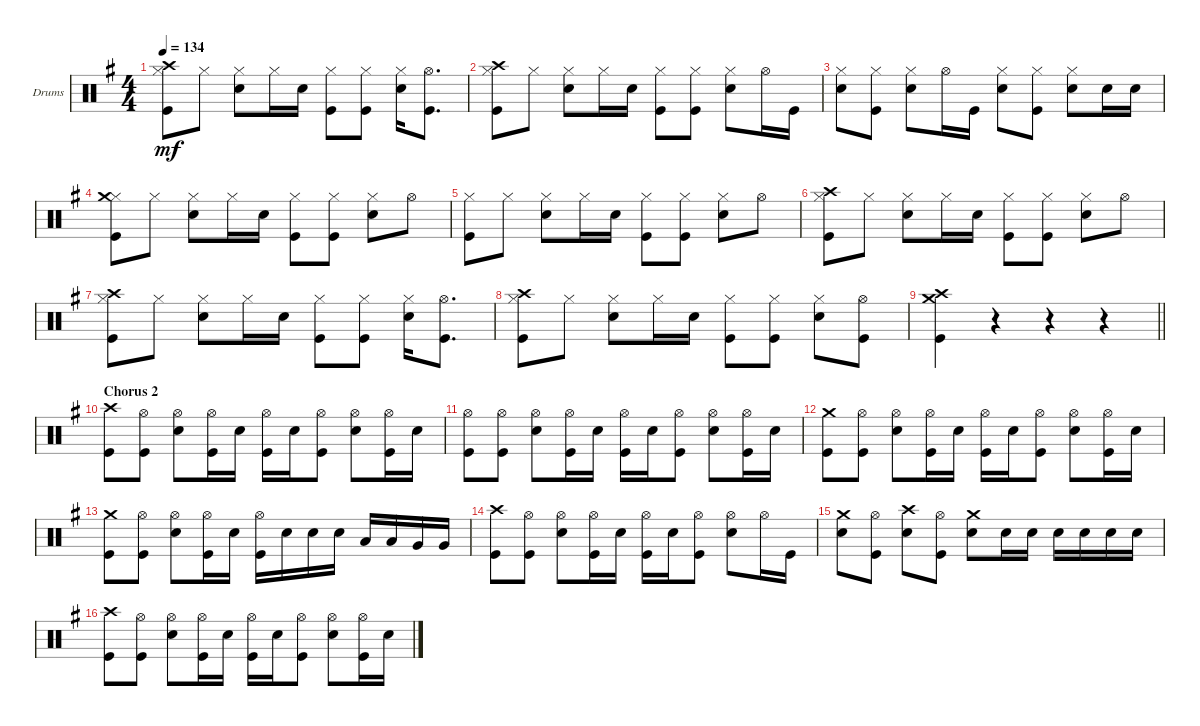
\bracketExtendMode groupsimilarinstruments
\firstSystemTrackNameOrientation horizontal
\otherSystemsTrackNameOrientation horizontal
\track ("drums (Anton Zulganov)" "Drums") {instrument percussion}
\staff {score}
\articulation defaults
\ts (4 4)
\tempo 134
\clef neutral
\ks eminor
("Hi-Hat (closed)" "Kick (hit)" "Crash high (hit)").8{dy mf} "Hi-Hat (closed)".8 ("Hi-Hat (closed)" "Snare (hit) 2").8 "Hi-Hat (closed)".16 "Snare (hit) 2".16 ("Hi-Hat (closed)" "Kick (hit)").8 ("Hi-Hat (closed)" "Kick (hit)").8 ("Hi-Hat (closed)" "Snare (hit) 2").16 ("Hi-Hat (open)" "Kick (hit)").8{d} |
("Hi-Hat (closed)" "Kick (hit)" "Crash high (hit)").8 "Hi-Hat (closed)".8 ("Hi-Hat (closed)" "Snare (hit) 2").8 "Hi-Hat (closed)".16 "Snare (hit) 2".16 ("Hi-Hat (closed)" "Kick (hit)").8 ("Hi-Hat (closed)" "Kick (hit)").8 ("Hi-Hat (closed)" "Snare (hit) 2").8 "Hi-Hat (open)".16 "Kick (hit)".16 |
("Hi-Hat (closed)" "Snare (hit) 2").8 ("Kick (hit)" "Hi-Hat (closed)").8 ("Hi-Hat (closed)" "Snare (hit) 2").8 "Hi-Hat (open)".16 "Kick (hit)".16 ("Hi-Hat (closed)" "Snare (hit) 2").8 ("Hi-Hat (closed)" "Kick (hit)").8 ("Snare (hit) 2" "Hi-Hat (closed)").8 "Snare (hit) 2".16 "Snare (hit) 2".16 |
("Hi-Hat (closed)" "Kick (hit)" "Crash medium (hit)").8 "Hi-Hat (closed)".8 ("Hi-Hat (closed)" "Snare (hit) 2").8 "Hi-Hat (closed)".16 "Snare (hit) 2".16 ("Hi-Hat (closed)" "Kick (hit)").8 ("Hi-Hat (closed)" "Kick (hit)").8 ("Hi-Hat (closed)" "Snare (hit) 2").8 "Hi-Hat (open)".8 |
("Hi-Hat (closed)" "Kick (hit)").8 "Hi-Hat (closed)".8 ("Hi-Hat (closed)" "Snare (hit) 2").8 "Hi-Hat (closed)".16 "Snare (hit) 2".16 ("Hi-Hat (closed)" "Kick (hit)").8 ("Hi-Hat (closed)" "Kick (hit)").8 ("Hi-Hat (closed)" "Snare (hit) 2").8 "Hi-Hat (open)".8 |
("Hi-Hat (closed)" "Kick (hit)" "Crash high (hit)").8 "Hi-Hat (closed)".8 ("Hi-Hat (closed)" "Snare (hit) 2").8 "Hi-Hat (closed)".16 "Snare (hit) 2".16 ("Hi-Hat (closed)" "Kick (hit)").8 ("Hi-Hat (closed)" "Kick (hit)").8 ("Hi-Hat (closed)" "Snare (hit) 2").8 "Hi-Hat (open)".8 |
("Hi-Hat (closed)" "Kick (hit)" "Crash high (hit)").8 "Hi-Hat (closed)".8 ("Hi-Hat (closed)" "Snare (hit) 2").8 "Hi-Hat (closed)".16 "Snare (hit) 2".16 ("Hi-Hat (closed)" "Kick (hit)").8 ("Hi-Hat (closed)" "Kick (hit)").8 ("Hi-Hat (closed)" "Snare (hit) 2").16 ("Hi-Hat (open)" "Kick (hit)").8{d} |
("Hi-Hat (closed)" "Kick (hit)" "Crash high (hit)").8 "Hi-Hat (closed)".8 ("Hi-Hat (closed)" "Snare (hit) 2").8 "Hi-Hat (closed)".16 "Snare (hit) 2".16 ("Hi-Hat (closed)" "Kick (hit)").8 ("Hi-Hat (closed)" "Kick (hit)").8 ("Hi-Hat (closed)" "Snare (hit) 2").8 ("Hi-Hat (open)" "Kick (hit)").8 |
\barLineRight lightlight
("Crash high (hit)" "Kick (hit)" "Crash medium (hit)").4 r.4 r.4 r.4 |
\section ("" "Chorus 2")
("Crash high (hit)" "Kick (hit)").8 ("Hi-Hat (open)" "Kick (hit)").8 ("Hi-Hat (open)" "Snare (hit) 2").8 ("Hi-Hat (open)" "Kick (hit)").16 "Snare (hit) 2".16 ("Hi-Hat (open)" "Kick (hit)").16 "Snare (hit) 2".16 ("Hi-Hat (open)" "Kick (hit)").8 ("Hi-Hat (open)" "Snare (hit) 2").8 ("Hi-Hat (open)" "Kick (hit)").16 "Snare (hit) 2".16 |
("Hi-Hat (open)" "Kick (hit)").8 ("Hi-Hat (open)" "Kick (hit)").8 ("Hi-Hat (open)" "Snare (hit) 2").8 ("Hi-Hat (open)" "Kick (hit)").16 "Snare (hit) 2".16 ("Hi-Hat (open)" "Kick (hit)").16 "Snare (hit) 2".16 ("Hi-Hat (open)" "Kick (hit)").8 ("Hi-Hat (open)" "Snare (hit) 2").8 ("Hi-Hat (open)" "Kick (hit)").16 "Snare (hit) 2".16 |
("Crash medium (hit)" "Kick (hit)").8 ("Hi-Hat (open)" "Kick (hit)").8 ("Hi-Hat (open)" "Snare (hit) 2").8 ("Hi-Hat (open)" "Kick (hit)").16 "Snare (hit) 2".16 ("Hi-Hat (open)" "Kick (hit)").16 "Snare (hit) 2".16 ("Hi-Hat (open)" "Kick (hit)").8 ("Hi-Hat (open)" "Snare (hit) 2").8 ("Hi-Hat (open)" "Kick (hit)").16 "Snare (hit) 2".16 |
("Crash medium (hit)" "Kick (hit)").8 ("Hi-Hat (open)" "Kick (hit)").8 ("Hi-Hat (open)" "Snare (hit) 2").8 ("Hi-Hat (open)" "Kick (hit)").16 "Snare (hit) 2".16 ("Hi-Hat (open)" "Kick (hit)").16 "Snare (hit) 2".16 "Snare (hit) 2".16 "Snare (hit) 2".16 "Low Tom (hit)".16 "Low Tom (hit)".16 "Very Low Tom (hit)".16 "Very Low Tom (hit)".16 |
("Crash high (hit)" "Kick (hit)").8 ("Hi-Hat (open)" "Kick (hit)").8 ("Hi-Hat (open)" "Snare (hit) 2").8 ("Hi-Hat (open)" "Kick (hit)").16 "Snare (hit) 2".16 ("Hi-Hat (open)" "Kick (hit)").16 "Snare (hit) 2".16 ("Hi-Hat (open)" "Kick (hit)").8 ("Hi-Hat (open)" "Snare (hit) 2").8 "Hi-Hat (open)".16 "Kick (hit)".16 |
("Crash medium (hit)" "Snare (hit) 2").8 ("Hi-Hat (open)" "Kick (hit)").8 ("Snare (hit) 2" "Crash high (hit)").8 ("Hi-Hat (open)" "Kick (hit)").8 ("Crash medium (hit)" "Snare (hit) 2").8 "Snare (hit) 2".16 "Snare (hit) 2".16 "Snare (hit) 2".16 "Snare (hit) 2".16 "Snare (hit) 2".16 "Snare (hit) 2".16 |
("Crash high (hit)" "Kick (hit)").8 ("Hi-Hat (open)" "Kick (hit)").8 ("Hi-Hat (open)" "Snare (hit) 2").8 ("Hi-Hat (open)" "Kick (hit)").16 "Snare (hit) 2".16 ("Hi-Hat (open)" "Kick (hit)").16 "Snare (hit) 2".16 ("Hi-Hat (open)" "Kick (hit)").8 ("Hi-Hat (open)" "Snare (hit) 2").8 ("Hi-Hat (open)" "Kick (hit)").16 "Snare (hit) 2".16
